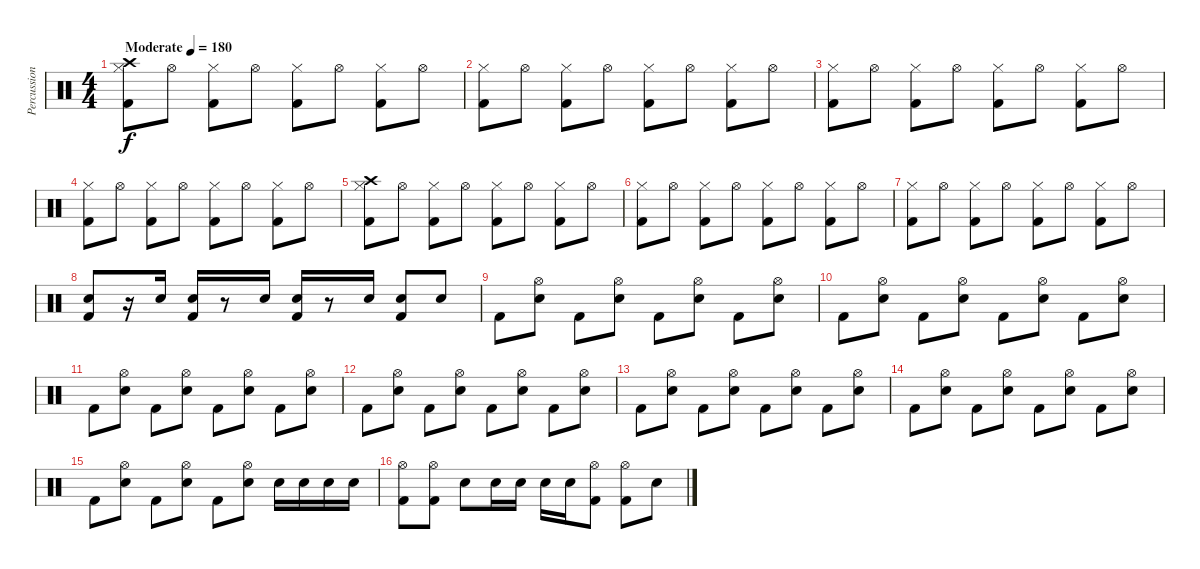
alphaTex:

\track ("Percussion" "Percussion") {instrument percussion}
\staff {score}
\articulation defaults
\ts (4 4)
\tempo (180 "Moderate")
\clef neutral
\ks c
("Crash high (hit)" "Hi-Hat (closed)" "Kick (hit) 2").8{dy f} "Hi-Hat (open)".8 ("Hi-Hat (closed)" "Kick (hit) 2").8 "Hi-Hat (open)".8 ("Hi-Hat (closed)" "Kick (hit) 2").8 "Hi-Hat (open)".8 ("Hi-Hat (closed)" "Kick (hit) 2").8 "Hi-Hat (open)".8 |
("Hi-Hat (closed)" "Kick (hit) 2").8 "Hi-Hat (open)".8 ("Hi-Hat (closed)" "Kick (hit) 2").8 "Hi-Hat (open)".8 ("Hi-Hat (closed)" "Kick (hit) 2").8 "Hi-Hat (open)".8 ("Hi-Hat (closed)" "Kick (hit) 2").8 "Hi-Hat (open)".8 |
("Hi-Hat (closed)" "Kick (hit) 2").8 "Hi-Hat (open)".8 ("Hi-Hat (closed)" "Kick (hit) 2").8 "Hi-Hat (open)".8 ("Hi-Hat (closed)" "Kick (hit) 2").8 "Hi-Hat (open)".8 ("Hi-Hat (closed)" "Kick (hit) 2").8 "Hi-Hat (open)".8 |
("Hi-Hat (closed)" "Kick (hit) 2").8 "Hi-Hat (open)".8 ("Hi-Hat (closed)" "Kick (hit) 2").8 "Hi-Hat (open)".8 ("Hi-Hat (closed)" "Kick (hit) 2").8 "Hi-Hat (open)".8 ("Hi-Hat (closed)" "Kick (hit) 2").8 "Hi-Hat (open)".8 |
("Crash high (hit)" "Hi-Hat (closed)" "Kick (hit) 2").8 "Hi-Hat (open)".8 ("Hi-Hat (closed)" "Kick (hit) 2").8 "Hi-Hat (open)".8 ("Hi-Hat (closed)" "Kick (hit) 2").8 "Hi-Hat (open)".8 ("Hi-Hat (closed)" "Kick (hit) 2").8 "Hi-Hat (open)".8 |
("Hi-Hat (closed)" "Kick (hit) 2").8 "Hi-Hat (open)".8 ("Hi-Hat (closed)" "Kick (hit) 2").8 "Hi-Hat (open)".8 ("Hi-Hat (closed)" "Kick (hit) 2").8 "Hi-Hat (open)".8 ("Hi-Hat (closed)" "Kick (hit) 2").8 "Hi-Hat (open)".8 |
("Hi-Hat (closed)" "Kick (hit) 2").8 "Hi-Hat (open)".8 ("Hi-Hat (closed)" "Kick (hit) 2").8 "Hi-Hat (open)".8 ("Hi-Hat (closed)" "Kick (hit) 2").8 "Hi-Hat (open)".8 ("Hi-Hat (closed)" "Kick (hit) 2").8 "Hi-Hat (open)".8 |
("Electric Snare (hit)" "Kick (hit) 2").8 r.16 "Electric Snare (hit)".16 ("Electric Snare (hit)" "Kick (hit) 2").16 r.8 "Electric Snare (hit)".16 ("Electric Snare (hit)" "Kick (hit) 2").16 r.8 "Electric Snare (hit)".16 ("Electric Snare (hit)" "Kick (hit) 2").8 "Electric Snare (hit)".8 |
"Kick (hit) 2".8 ("Hi-Hat (open)" "Electric Snare (hit)").8 "Kick (hit) 2".8 ("Hi-Hat (open)" "Electric Snare (hit)").8 "Kick (hit) 2".8 ("Hi-Hat (open)" "Electric Snare (hit)").8 "Kick (hit) 2".8 ("Hi-Hat (open)" "Electric Snare (hit)").8 |
"Kick (hit) 2".8 ("Hi-Hat (open)" "Electric Snare (hit)").8 "Kick (hit) 2".8 ("Hi-Hat (open)" "Electric Snare (hit)").8 "Kick (hit) 2".8 ("Hi-Hat (open)" "Electric Snare (hit)").8 "Kick (hit) 2".8 ("Hi-Hat (open)" "Electric Snare (hit)").8 |
"Kick (hit) 2".8 ("Hi-Hat (open)" "Electric Snare (hit)").8 "Kick (hit) 2".8 ("Hi-Hat (open)" "Electric Snare (hit)").8 "Kick (hit) 2".8 ("Hi-Hat (open)" "Electric Snare (hit)").8 "Kick (hit) 2".8 ("Hi-Hat (open)" "Electric Snare (hit)").8 |
"Kick (hit) 2".8 ("Hi-Hat (open)" "Electric Snare (hit)").8 "Kick (hit) 2".8 ("Hi-Hat (open)" "Electric Snare (hit)").8 "Kick (hit) 2".8 ("Hi-Hat (open)" "Electric Snare (hit)").8 "Kick (hit) 2".8 ("Hi-Hat (open)" "Electric Snare (hit)").8 |
"Kick (hit) 2".8 ("Hi-Hat (open)" "Electric Snare (hit)").8 "Kick (hit) 2".8 ("Hi-Hat (open)" "Electric Snare (hit)").8 "Kick (hit) 2".8 ("Hi-Hat (open)" "Electric Snare (hit)").8 "Kick (hit) 2".8 ("Hi-Hat (open)" "Electric Snare (hit)").8 |
"Kick (hit) 2".8 ("Hi-Hat (open)" "Electric Snare (hit)").8 "Kick (hit) 2".8 ("Hi-Hat (open)" "Electric Snare (hit)").8 "Kick (hit) 2".8 ("Hi-Hat (open)" "Electric Snare (hit)").8 "Kick (hit) 2".8 ("Hi-Hat (open)" "Electric Snare (hit)").8 |
"Kick (hit) 2".8 ("Hi-Hat (open)" "Electric Snare (hit)").8 "Kick (hit) 2".8 ("Hi-Hat (open)" "Electric Snare (hit)").8 "Kick (hit) 2".8 ("Hi-Hat (open)" "Electric Snare (hit)").8 "Electric Snare (hit)".16 "Electric Snare (hit)".16 "Electric Snare (hit)".16 "Electric Snare (hit)".16 |
("Hi-Hat (open)" "Kick (hit) 2").8 ("Hi-Hat (open)" "Kick (hit) 2").8 "Electric Snare (hit)".8 "Electric Snare (hit)".16 "Electric Snare (hit)".16 "Electric Snare (hit)".16 "Electric Snare (hit)".16 ("Hi-Hat (open)" "Kick (hit) 2").8 ("Hi-Hat (open)" "Kick (hit) 2").8 "Electric Snare (hit)".8
